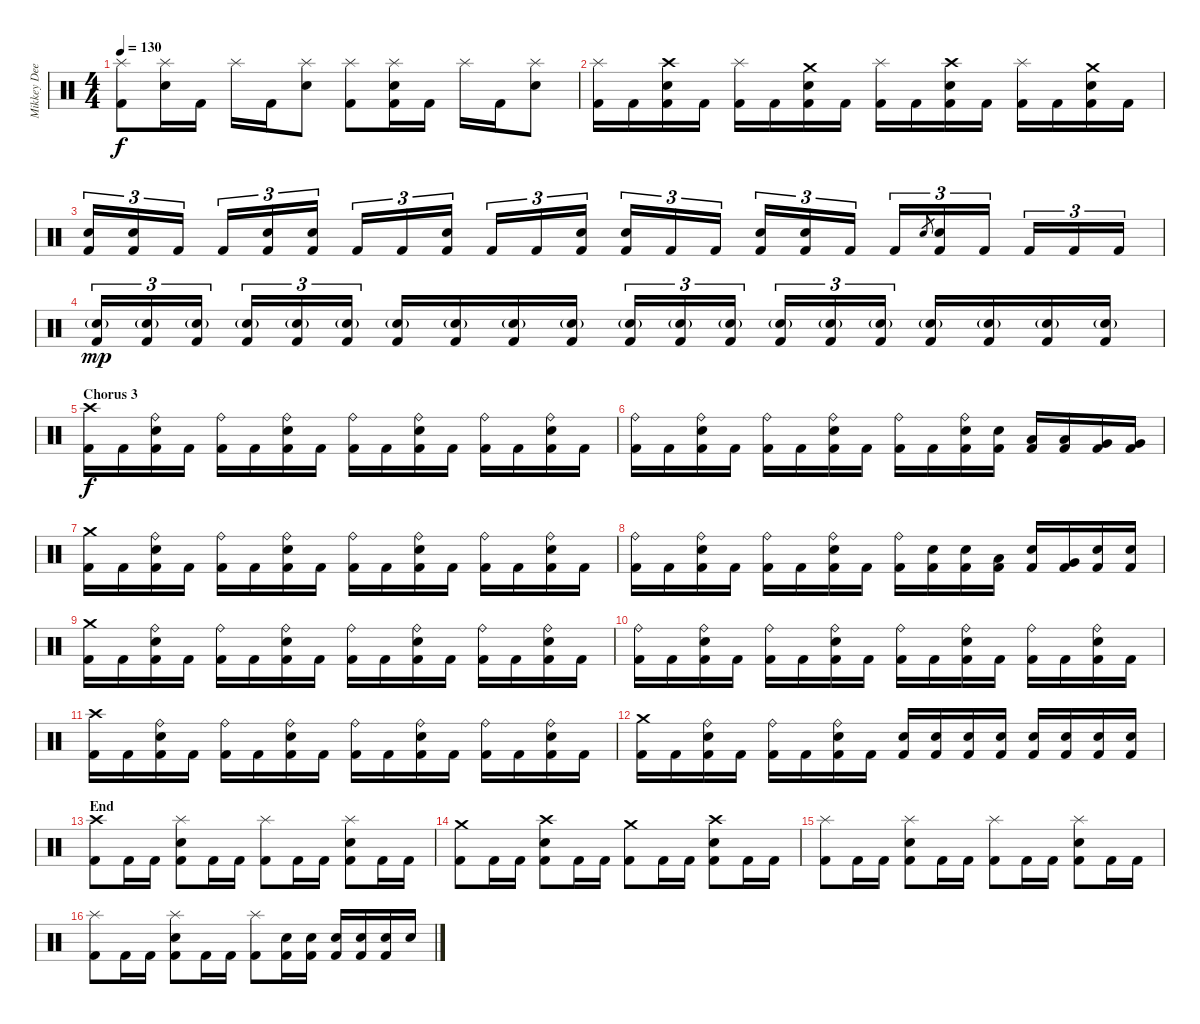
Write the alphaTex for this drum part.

\track ("Mikkey Dee" "Mikkey Dee") {instrument percussion}
\staff {score}
\articulation defaults
\ts (4 4)
\tempo 130
\clef neutral
\ks c
("Splash (hit)" "Kick (hit) 2").8{dy f} ("Splash (hit)" "Snare (hit) 2").16 "Kick (hit) 2".16 "Splash (hit)".16 "Kick (hit) 2".16 ("Splash (hit)" "Snare (hit) 2").8 ("Splash (hit)" "Kick (hit) 2").8 ("Splash (hit)" "Snare (hit) 2" "Kick (hit) 2").16 "Kick (hit) 2".16 "Splash (hit)".16 "Kick (hit) 2".16 ("Splash (hit)" "Snare (hit) 2").8 |
("Splash (hit)" "Kick (hit) 2").16 "Kick (hit) 2".16 ("Crash high (hit)" "Snare (hit) 2" "Kick (hit) 2").16 "Kick (hit) 2".16 ("Splash (hit)" "Kick (hit) 2").16 "Kick (hit) 2".16 ("Crash medium (hit)" "Snare (hit) 2" "Kick (hit) 2").16 "Kick (hit) 2".16 ("Splash (hit)" "Kick (hit) 2").16 "Kick (hit) 2".16 ("Crash high (hit)" "Snare (hit) 2" "Kick (hit) 2").16 "Kick (hit) 2".16 ("Splash (hit)" "Kick (hit) 2").16 "Kick (hit) 2".16 ("Crash medium (hit)" "Snare (hit) 2" "Kick (hit) 2").16 "Kick (hit) 2".16 |
("Snare (hit) 2" "Kick (hit) 2").16{tu (3 2)} ("Snare (hit) 2" "Kick (hit) 2").16{tu (3 2)} "Kick (hit) 2".16{tu (3 2)} "Kick (hit) 2".16{tu (3 2)} ("Snare (hit) 2" "Kick (hit) 2").16{tu (3 2)} ("Snare (hit) 2" "Kick (hit) 2").16{tu (3 2)} "Kick (hit) 2".16{tu (3 2)} "Kick (hit) 2".16{tu (3 2)} ("Snare (hit) 2" "Kick (hit) 2").16{tu (3 2)} "Kick (hit) 2".16{tu (3 2)} "Kick (hit) 2".16{tu (3 2)} ("Snare (hit) 2" "Kick (hit) 2").16{tu (3 2)} ("Snare (hit) 2" "Kick (hit) 2").16{tu (3 2)} "Kick (hit) 2".16{tu (3 2)} "Kick (hit) 2".16{tu (3 2)} ("Snare (hit) 2" "Kick (hit) 2").16{tu (3 2)} ("Snare (hit) 2" "Kick (hit) 2").16{tu (3 2)} "Kick (hit) 2".16{tu (3 2)} "Kick (hit) 2".16{tu (3 2)} "Snare (hit) 2".8{gr} ("Snare (hit) 2" "Kick (hit) 2").16{tu (3 2)} "Kick (hit) 2".16{tu (3 2)} "Kick (hit) 2".16{tu (3 2)} "Kick (hit) 2".16{tu (3 2)} "Kick (hit) 2".16{tu (3 2)} |
("Snare (hit) 2"{g} "Kick (hit) 2").16{tu (3 2) dy mp} ("Snare (hit) 2"{g} "Kick (hit) 2").16{tu (3 2)} ("Snare (hit) 2"{g} "Kick (hit) 2").16{tu (3 2)} ("Snare (hit) 2"{g} "Kick (hit) 2").16{tu (3 2)} ("Snare (hit) 2"{g} "Kick (hit) 2").16{tu (3 2)} ("Snare (hit) 2"{g} "Kick (hit) 2").16{tu (3 2)} ("Snare (hit) 2"{g} "Kick (hit) 2").16 ("Snare (hit) 2"{g} "Kick (hit) 2").16 ("Snare (hit) 2"{g} "Kick (hit) 2").16 ("Snare (hit) 2"{g} "Kick (hit) 2").16 ("Snare (hit) 2"{g} "Kick (hit) 2").16{tu (3 2)} ("Snare (hit) 2"{g} "Kick (hit) 2").16{tu (3 2)} ("Snare (hit) 2"{g} "Kick (hit) 2").16{tu (3 2)} ("Snare (hit) 2"{g} "Kick (hit) 2").16{tu (3 2)} ("Snare (hit) 2"{g} "Kick (hit) 2").16{tu (3 2)} ("Snare (hit) 2"{g} "Kick (hit) 2").16{tu (3 2)} ("Snare (hit) 2"{g} "Kick (hit) 2").16 ("Snare (hit) 2"{g} "Kick (hit) 2").16 ("Snare (hit) 2"{g} "Kick (hit) 2").16 ("Snare (hit) 2"{g} "Kick (hit) 2").16 |
\section ("" "Chorus 3")
("Crash high (hit)" "Kick (hit) 2").16{dy f} "Kick (hit) 2".16 ("Ride (bell)" "Snare (hit) 2" "Kick (hit) 2").16 "Kick (hit) 2".16 ("Ride (bell)" "Kick (hit) 2").16 "Kick (hit) 2".16 ("Ride (bell)" "Snare (hit) 2" "Kick (hit) 2").16 "Kick (hit) 2".16 ("Ride (bell)" "Kick (hit) 2").16 "Kick (hit) 2".16 ("Ride (bell)" "Snare (hit) 2" "Kick (hit) 2").16 "Kick (hit) 2".16 ("Ride (bell)" "Kick (hit) 2").16 "Kick (hit) 2".16 ("Ride (bell)" "Snare (hit) 2" "Kick (hit) 2").16 "Kick (hit) 2".16 |
("Ride (bell)" "Kick (hit) 2").16 "Kick (hit) 2".16 ("Ride (bell)" "Snare (hit) 2" "Kick (hit) 2").16 "Kick (hit) 2".16 ("Ride (bell)" "Kick (hit) 2").16 "Kick (hit) 2".16 ("Ride (bell)" "Snare (hit) 2" "Kick (hit) 2").16 "Kick (hit) 2".16 ("Ride (bell)" "Kick (hit) 2").16 "Kick (hit) 2".16 ("Ride (bell)" "Snare (hit) 2" "Kick (hit) 2").16 ("Snare (hit) 2" "Kick (hit) 2").16 ("Low Tom (hit)" "Kick (hit) 2").16 ("Low Tom (hit)" "Kick (hit) 2").16 ("Very Low Tom (hit)" "Kick (hit) 2").16 ("Very Low Tom (hit)" "Kick (hit) 2").16 |
("Crash medium (hit)" "Kick (hit) 2").16 "Kick (hit) 2".16 ("Ride (bell)" "Snare (hit) 2" "Kick (hit) 2").16 "Kick (hit) 2".16 ("Ride (bell)" "Kick (hit) 2").16 "Kick (hit) 2".16 ("Ride (bell)" "Snare (hit) 2" "Kick (hit) 2").16 "Kick (hit) 2".16 ("Ride (bell)" "Kick (hit) 2").16 "Kick (hit) 2".16 ("Ride (bell)" "Snare (hit) 2" "Kick (hit) 2").16 "Kick (hit) 2".16 ("Ride (bell)" "Kick (hit) 2").16 "Kick (hit) 2".16 ("Ride (bell)" "Snare (hit) 2" "Kick (hit) 2").16 "Kick (hit) 2".16 |
("Ride (bell)" "Kick (hit) 2").16 "Kick (hit) 2".16 ("Ride (bell)" "Snare (hit) 2" "Kick (hit) 2").16 "Kick (hit) 2".16 ("Ride (bell)" "Kick (hit) 2").16 "Kick (hit) 2".16 ("Ride (bell)" "Snare (hit) 2" "Kick (hit) 2").16 "Kick (hit) 2".16 ("Ride (bell)" "Kick (hit) 2").16 ("Snare (hit) 2" "Kick (hit) 2").16 ("Snare (hit) 2" "Kick (hit) 2").16 ("Low Tom (hit)" "Kick (hit) 2").16 ("Snare (hit) 2" "Kick (hit) 2").16 ("Very Low Tom (hit)" "Kick (hit) 2").16 ("Snare (hit) 2" "Kick (hit) 2").16 ("Snare (hit) 2" "Kick (hit) 2").16 |
("Crash medium (hit)" "Kick (hit) 2").16 "Kick (hit) 2".16 ("Ride (bell)" "Snare (hit) 2" "Kick (hit) 2").16 "Kick (hit) 2".16 ("Ride (bell)" "Kick (hit) 2").16 "Kick (hit) 2".16 ("Ride (bell)" "Snare (hit) 2" "Kick (hit) 2").16 "Kick (hit) 2".16 ("Ride (bell)" "Kick (hit) 2").16 "Kick (hit) 2".16 ("Ride (bell)" "Snare (hit) 2" "Kick (hit) 2").16 "Kick (hit) 2".16 ("Ride (bell)" "Kick (hit) 2").16 "Kick (hit) 2".16 ("Ride (bell)" "Snare (hit) 2" "Kick (hit) 2").16 "Kick (hit) 2".16 |
("Ride (bell)" "Kick (hit) 2").16 "Kick (hit) 2".16 ("Ride (bell)" "Snare (hit) 2" "Kick (hit) 2").16 "Kick (hit) 2".16 ("Ride (bell)" "Kick (hit) 2").16 "Kick (hit) 2".16 ("Ride (bell)" "Snare (hit) 2" "Kick (hit) 2").16 "Kick (hit) 2".16 ("Ride (bell)" "Kick (hit) 2").16 "Kick (hit) 2".16 ("Ride (bell)" "Snare (hit) 2" "Kick (hit) 2").16 "Kick (hit) 2".16 ("Ride (bell)" "Kick (hit) 2").16 "Kick (hit) 2".16 ("Ride (bell)" "Snare (hit) 2" "Kick (hit) 2").16 "Kick (hit) 2".16 |
("Crash high (hit)" "Kick (hit) 2").16 "Kick (hit) 2".16 ("Ride (bell)" "Snare (hit) 2" "Kick (hit) 2").16 "Kick (hit) 2".16 ("Ride (bell)" "Kick (hit) 2").16 "Kick (hit) 2".16 ("Ride (bell)" "Snare (hit) 2" "Kick (hit) 2").16 "Kick (hit) 2".16 ("Ride (bell)" "Kick (hit) 2").16 "Kick (hit) 2".16 ("Ride (bell)" "Snare (hit) 2" "Kick (hit) 2").16 "Kick (hit) 2".16 ("Ride (bell)" "Kick (hit) 2").16 "Kick (hit) 2".16 ("Ride (bell)" "Snare (hit) 2" "Kick (hit) 2").16 "Kick (hit) 2".16 |
("Crash medium (hit)" "Kick (hit) 2").16 "Kick (hit) 2".16 ("Ride (bell)" "Snare (hit) 2" "Kick (hit) 2").16 "Kick (hit) 2".16 ("Ride (bell)" "Kick (hit) 2").16 "Kick (hit) 2".16 ("Ride (bell)" "Snare (hit) 2" "Kick (hit) 2").16 "Kick (hit) 2".16 ("Snare (hit) 2" "Kick (hit) 2").16 ("Snare (hit) 2" "Kick (hit) 2").16 ("Snare (hit) 2" "Kick (hit) 2").16 ("Snare (hit) 2" "Kick (hit) 2").16 ("Snare (hit) 2" "Kick (hit) 2").16 ("Snare (hit) 2" "Kick (hit) 2").16 ("Snare (hit) 2" "Kick (hit) 2").16 ("Snare (hit) 2" "Kick (hit) 2").16 |
\section ("" "End")
("Crash high (hit)" "Kick (hit) 2").8 "Kick (hit) 2".16 "Kick (hit) 2".16 ("Splash (hit)" "Snare (hit) 2" "Kick (hit) 2").8 "Kick (hit) 2".16 "Kick (hit) 2".16 ("Splash (hit)" "Kick (hit) 2").8 "Kick (hit) 2".16 "Kick (hit) 2".16 ("Splash (hit)" "Snare (hit) 2" "Kick (hit) 2").8 "Kick (hit) 2".16 "Kick (hit) 2".16 |
("Crash medium (hit)" "Kick (hit) 2").8 "Kick (hit) 2".16 "Kick (hit) 2".16 ("Crash high (hit)" "Snare (hit) 2" "Kick (hit) 2").8 "Kick (hit) 2".16 "Kick (hit) 2".16 ("Crash medium (hit)" "Kick (hit) 2").8 "Kick (hit) 2".16 "Kick (hit) 2".16 ("Crash high (hit)" "Snare (hit) 2" "Kick (hit) 2").8 "Kick (hit) 2".16 "Kick (hit) 2".16 |
("Splash (hit)" "Kick (hit) 2").8 "Kick (hit) 2".16 "Kick (hit) 2".16 ("Splash (hit)" "Snare (hit) 2" "Kick (hit) 2").8 "Kick (hit) 2".16 "Kick (hit) 2".16 ("Splash (hit)" "Kick (hit) 2").8 "Kick (hit) 2".16 "Kick (hit) 2".16 ("Splash (hit)" "Snare (hit) 2" "Kick (hit) 2").8 "Kick (hit) 2".16 "Kick (hit) 2".16 |
("Splash (hit)" "Kick (hit) 2").8 "Kick (hit) 2".16 "Kick (hit) 2".16 ("Splash (hit)" "Snare (hit) 2" "Kick (hit) 2").8 "Kick (hit) 2".16 "Kick (hit) 2".16 ("Splash (hit)" "Kick (hit) 2").8 ("Snare (hit) 2" "Kick (hit) 2").16 ("Snare (hit) 2" "Kick (hit) 2").16 ("Snare (hit) 2" "Kick (hit) 2").16 ("Snare (hit) 2" "Kick (hit) 2").16 ("Snare (hit) 2" "Kick (hit) 2").16 "Snare (hit) 2".16
